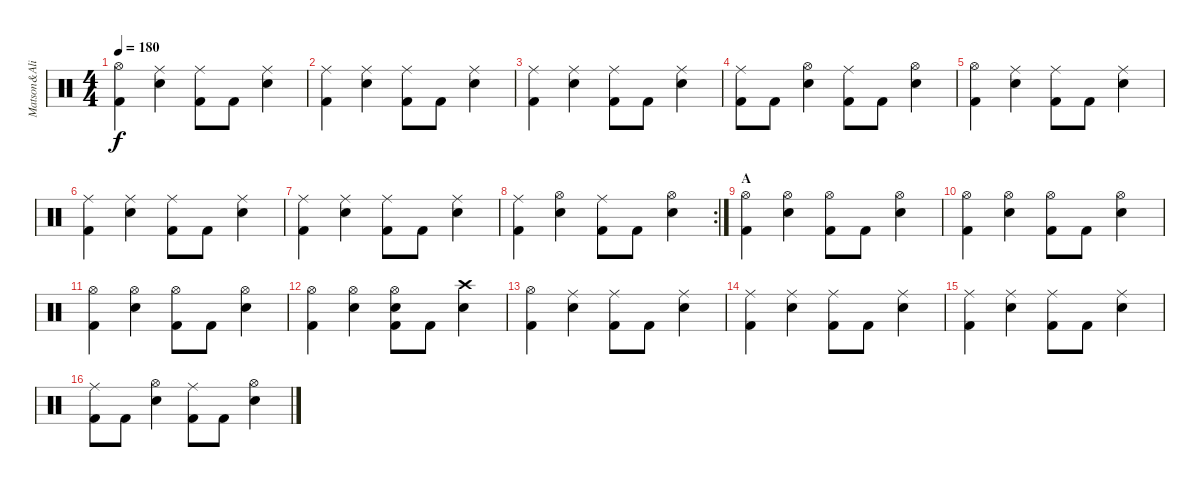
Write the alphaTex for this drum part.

\track ("Matson&Ali" "Matson&Ali") {instrument percussion}
\staff {score}
\articulation defaults
\ts (4 4)
\tempo 180
\clef neutral
\ks c
("Hi-Hat (open)" "Kick (hit) 2").4{dy f} ("Ride (middle)" "Snare (hit) 2").4 ("Ride (middle)" "Kick (hit) 2").8 "Kick (hit) 2".8 ("Ride (middle)" "Snare (hit) 2").4 |
("Ride (middle)" "Kick (hit) 2").4 ("Ride (middle)" "Snare (hit) 2").4 ("Ride (middle)" "Kick (hit) 2").8 "Kick (hit) 2".8 ("Ride (middle)" "Snare (hit) 2").4 |
("Ride (middle)" "Kick (hit) 2").4 ("Ride (middle)" "Snare (hit) 2").4 ("Ride (middle)" "Kick (hit) 2").8 "Kick (hit) 2".8 ("Ride (middle)" "Snare (hit) 2").4 |
("Ride (middle)" "Kick (hit) 2").8 "Kick (hit) 2".8 ("Hi-Hat (open)" "Snare (hit) 2").4 ("Ride (middle)" "Kick (hit) 2").8 "Kick (hit) 2".8 ("Hi-Hat (open)" "Snare (hit) 2").4 |
("Hi-Hat (open)" "Kick (hit) 2").4 ("Ride (middle)" "Snare (hit) 2").4 ("Ride (middle)" "Kick (hit) 2").8 "Kick (hit) 2".8 ("Ride (middle)" "Snare (hit) 2").4 |
("Ride (middle)" "Kick (hit) 2").4 ("Ride (middle)" "Snare (hit) 2").4 ("Ride (middle)" "Kick (hit) 2").8 "Kick (hit) 2".8 ("Ride (middle)" "Snare (hit) 2").4 |
("Ride (middle)" "Kick (hit) 2").4 ("Ride (middle)" "Snare (hit) 2").4 ("Ride (middle)" "Kick (hit) 2").8 "Kick (hit) 2".8 ("Ride (middle)" "Snare (hit) 2").4 |
\rc 2
("Ride (middle)" "Kick (hit) 2").4 ("Hi-Hat (open)" "Snare (hit) 2").4 ("Ride (middle)" "Kick (hit) 2").8 "Kick (hit) 2".8 ("Hi-Hat (open)" "Snare (hit) 2").4 |
\section ("" "A")
("Hi-Hat (open)" "Kick (hit) 2").4 ("Hi-Hat (open)" "Snare (hit) 2").4 ("Hi-Hat (open)" "Kick (hit) 2").8 "Kick (hit) 2".8 ("Hi-Hat (open)" "Snare (hit) 2").4 |
("Hi-Hat (open)" "Kick (hit) 2").4 ("Hi-Hat (open)" "Snare (hit) 2").4 ("Hi-Hat (open)" "Kick (hit) 2").8 "Kick (hit) 2".8 ("Hi-Hat (open)" "Snare (hit) 2").4 |
("Hi-Hat (open)" "Kick (hit) 2").4 ("Hi-Hat (open)" "Snare (hit) 2").4 ("Hi-Hat (open)" "Kick (hit) 2").8 "Kick (hit) 2".8 ("Hi-Hat (open)" "Snare (hit) 2").4 |
("Hi-Hat (open)" "Kick (hit) 2").4 ("Hi-Hat (open)" "Snare (hit) 2").4 ("Hi-Hat (open)" "Snare (hit) 2" "Kick (hit) 2").8 "Kick (hit) 2".8 ("Crash high (hit)" "Snare (hit) 2").4 |
("Hi-Hat (open)" "Kick (hit) 2").4 ("Ride (middle)" "Snare (hit) 2").4 ("Ride (middle)" "Kick (hit) 2").8 "Kick (hit) 2".8 ("Ride (middle)" "Snare (hit) 2").4 |
("Ride (middle)" "Kick (hit) 2").4 ("Ride (middle)" "Snare (hit) 2").4 ("Ride (middle)" "Kick (hit) 2").8 "Kick (hit) 2".8 ("Ride (middle)" "Snare (hit) 2").4 |
("Ride (middle)" "Kick (hit) 2").4 ("Ride (middle)" "Snare (hit) 2").4 ("Ride (middle)" "Kick (hit) 2").8 "Kick (hit) 2".8 ("Ride (middle)" "Snare (hit) 2").4 |
("Ride (middle)" "Kick (hit) 2").8 "Kick (hit) 2".8 ("Hi-Hat (open)" "Snare (hit) 2").4 ("Ride (middle)" "Kick (hit) 2").8 "Kick (hit) 2".8 ("Hi-Hat (open)" "Snare (hit) 2").4
